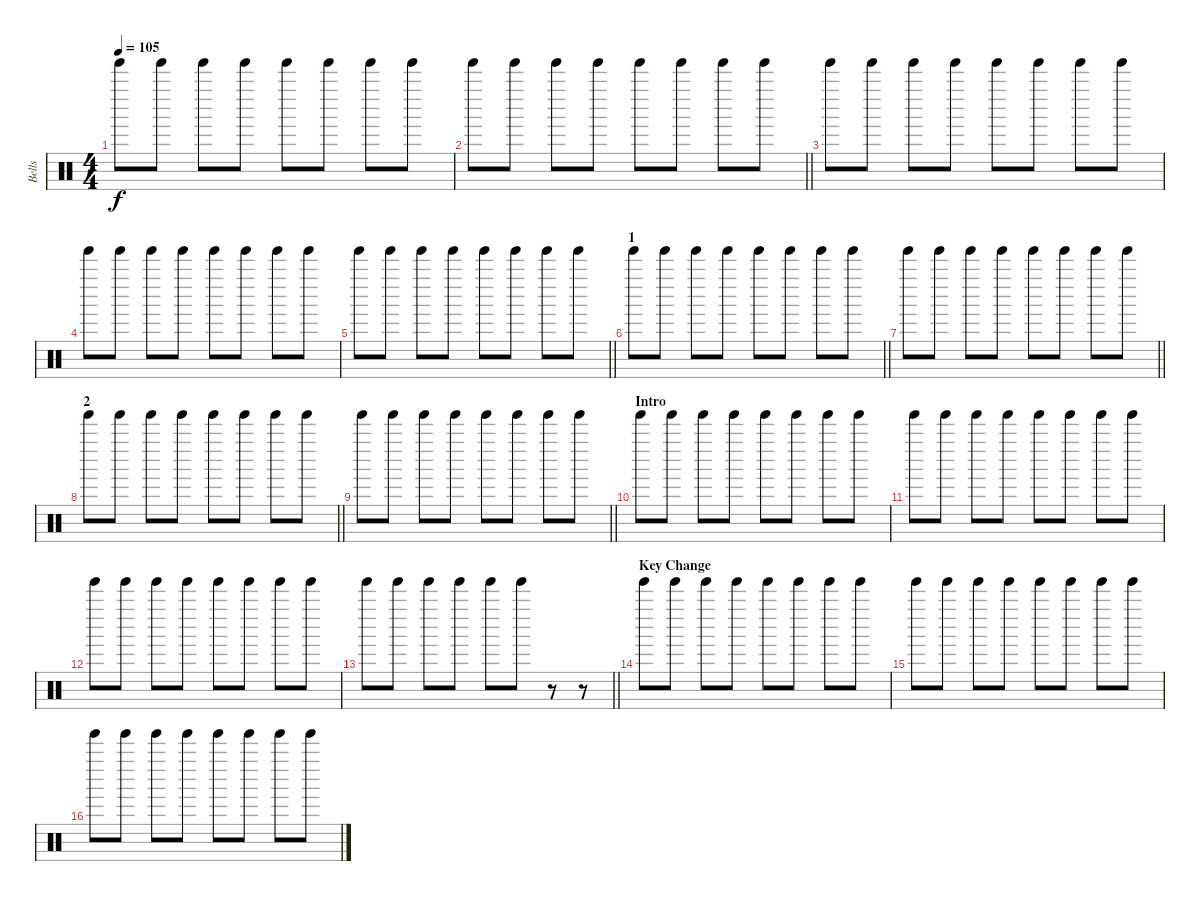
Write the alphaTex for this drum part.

\track ("Bells" "Bells") {instrument percussion}
\staff {score}
\articulation defaults
\ts (4 4)
\tempo 105
\clef neutral
\ks c "Tinkle Bell (hit)".8{dy f} "Tinkle Bell (hit)".8 "Tinkle Bell (hit)".8 "Tinkle Bell (hit)".8 "Tinkle Bell (hit)".8 "Tinkle Bell (hit)".8 "Tinkle Bell (hit)".8 "Tinkle Bell (hit)".8
|
\barLineRight lightlight "Tinkle Bell (hit)".8 "Tinkle Bell (hit)".8 "Tinkle Bell (hit)".8 "Tinkle Bell (hit)".8 "Tinkle Bell (hit)".8 "Tinkle Bell (hit)".8 "Tinkle Bell (hit)".8 "Tinkle Bell (hit)".8
|
"Tinkle Bell (hit)".8 "Tinkle Bell (hit)".8 "Tinkle Bell (hit)".8 "Tinkle Bell (hit)".8 "Tinkle Bell (hit)".8 "Tinkle Bell (hit)".8 "Tinkle Bell (hit)".8 "Tinkle Bell (hit)".8 |
"Tinkle Bell (hit)".8 "Tinkle Bell (hit)".8 "Tinkle Bell (hit)".8 "Tinkle Bell (hit)".8 "Tinkle Bell (hit)".8 "Tinkle Bell (hit)".8 "Tinkle Bell (hit)".8 "Tinkle Bell (hit)".8 |
\barLineRight lightlight "Tinkle Bell (hit)".8 "Tinkle Bell (hit)".8 "Tinkle Bell (hit)".8 "Tinkle Bell (hit)".8 "Tinkle Bell (hit)".8 "Tinkle Bell (hit)".8 "Tinkle Bell (hit)".8 "Tinkle Bell (hit)".8
|
\section ("" "1")
\barLineRight lightlight "Tinkle Bell (hit)".8 "Tinkle Bell (hit)".8 "Tinkle Bell (hit)".8 "Tinkle Bell (hit)".8 "Tinkle Bell (hit)".8 "Tinkle Bell (hit)".8 "Tinkle Bell (hit)".8 "Tinkle Bell (hit)".8
|
\barLineRight lightlight "Tinkle Bell (hit)".8 "Tinkle Bell (hit)".8 "Tinkle Bell (hit)".8 "Tinkle Bell (hit)".8 "Tinkle Bell (hit)".8 "Tinkle Bell (hit)".8 "Tinkle Bell (hit)".8 "Tinkle Bell (hit)".8
|
\section ("" "2")
\barLineRight lightlight "Tinkle Bell (hit)".8 "Tinkle Bell (hit)".8 "Tinkle Bell (hit)".8 "Tinkle Bell (hit)".8 "Tinkle Bell (hit)".8 "Tinkle Bell (hit)".8 "Tinkle Bell (hit)".8 "Tinkle Bell (hit)".8
|
\barLineRight lightlight "Tinkle Bell (hit)".8 "Tinkle Bell (hit)".8 "Tinkle Bell (hit)".8 "Tinkle Bell (hit)".8 "Tinkle Bell (hit)".8 "Tinkle Bell (hit)".8 "Tinkle Bell (hit)".8 "Tinkle Bell (hit)".8
|
\section ("" "Intro")
"Tinkle Bell (hit)".8 "Tinkle Bell (hit)".8 "Tinkle Bell (hit)".8 "Tinkle Bell (hit)".8 "Tinkle Bell (hit)".8 "Tinkle Bell (hit)".8 "Tinkle Bell (hit)".8 "Tinkle Bell (hit)".8 |
"Tinkle Bell (hit)".8 "Tinkle Bell (hit)".8 "Tinkle Bell (hit)".8 "Tinkle Bell (hit)".8 "Tinkle Bell (hit)".8 "Tinkle Bell (hit)".8 "Tinkle Bell (hit)".8 "Tinkle Bell (hit)".8 |
"Tinkle Bell (hit)".8 "Tinkle Bell (hit)".8 "Tinkle Bell (hit)".8 "Tinkle Bell (hit)".8 "Tinkle Bell (hit)".8 "Tinkle Bell (hit)".8 "Tinkle Bell (hit)".8 "Tinkle Bell (hit)".8 |
\barLineRight lightlight "Tinkle Bell (hit)".8 "Tinkle Bell (hit)".8 "Tinkle Bell (hit)".8 "Tinkle Bell (hit)".8 "Tinkle Bell (hit)".8 "Tinkle Bell (hit)".8
r.8 r.8 |
\section ("" "Key Change")
"Tinkle Bell (hit)".8 "Tinkle Bell (hit)".8 "Tinkle Bell (hit)".8 "Tinkle Bell (hit)".8 "Tinkle Bell (hit)".8 "Tinkle Bell (hit)".8 "Tinkle Bell (hit)".8 "Tinkle Bell (hit)".8 |
"Tinkle Bell (hit)".8 "Tinkle Bell (hit)".8 "Tinkle Bell (hit)".8 "Tinkle Bell (hit)".8 "Tinkle Bell (hit)".8 "Tinkle Bell (hit)".8 "Tinkle Bell (hit)".8 "Tinkle Bell (hit)".8 |
"Tinkle Bell (hit)".8 "Tinkle Bell (hit)".8 "Tinkle Bell (hit)".8 "Tinkle Bell (hit)".8 "Tinkle Bell (hit)".8 "Tinkle Bell (hit)".8 "Tinkle Bell (hit)".8 "Tinkle Bell (hit)".8
